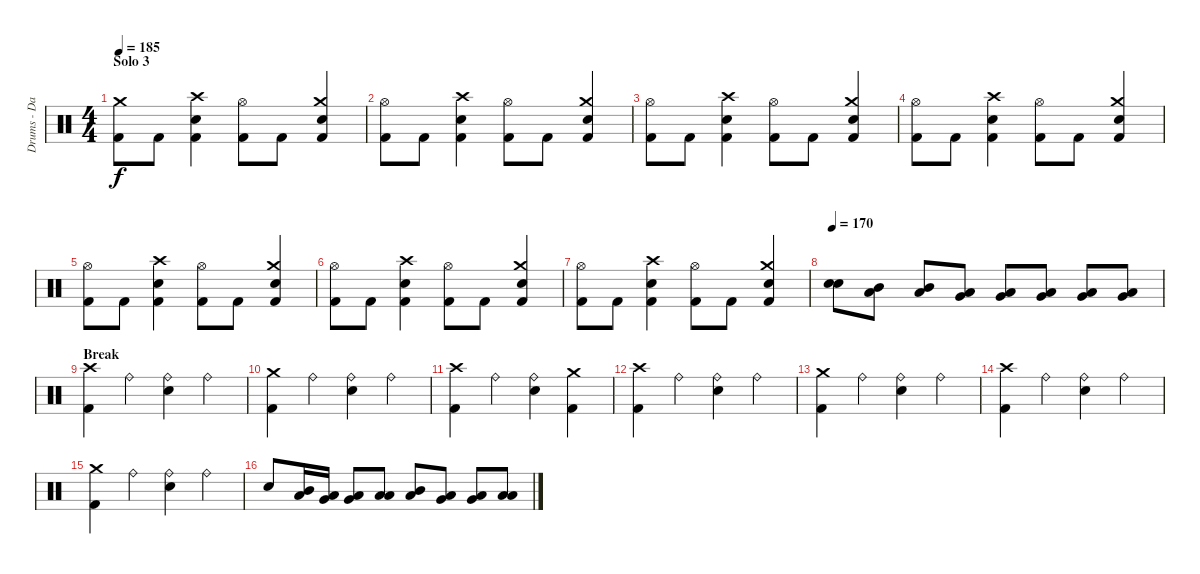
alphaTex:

\track ("Drums - Daniel Zimmermann" "Drums - Da") {instrument percussion}
\staff {score}
\articulation defaults
\ts (4 4)
\section ("" "Solo 3")
\tempo 185
\clef neutral
\ks c
("Kick (hit) 2" "Crash medium (hit)").8{dy f} "Kick (hit) 2".8 ("Kick (hit) 2" "Electric Snare (hit)" "Crash high (hit)").4 ("Kick (hit) 2" "Hi-Hat (open)").8 "Kick (hit) 2".8 ("Kick (hit) 2" "Electric Snare (hit)" "Crash medium (hit)").4 |
("Kick (hit) 2" "Hi-Hat (open)").8 "Kick (hit) 2".8 ("Kick (hit) 2" "Electric Snare (hit)" "Crash high (hit)").4 ("Kick (hit) 2" "Hi-Hat (open)").8 "Kick (hit) 2".8 ("Kick (hit) 2" "Electric Snare (hit)" "Crash medium (hit)").4 |
("Kick (hit) 2" "Hi-Hat (open)").8 "Kick (hit) 2".8 ("Kick (hit) 2" "Electric Snare (hit)" "Crash high (hit)").4 ("Kick (hit) 2" "Hi-Hat (open)").8 "Kick (hit) 2".8 ("Kick (hit) 2" "Electric Snare (hit)" "Crash medium (hit)").4 |
("Kick (hit) 2" "Hi-Hat (open)").8 "Kick (hit) 2".8 ("Kick (hit) 2" "Electric Snare (hit)" "Crash high (hit)").4 ("Kick (hit) 2" "Hi-Hat (open)").8 "Kick (hit) 2".8 ("Kick (hit) 2" "Electric Snare (hit)" "Crash medium (hit)").4 |
("Kick (hit) 2" "Hi-Hat (open)").8 "Kick (hit) 2".8 ("Kick (hit) 2" "Electric Snare (hit)" "Crash high (hit)").4 ("Kick (hit) 2" "Hi-Hat (open)").8 "Kick (hit) 2".8 ("Kick (hit) 2" "Electric Snare (hit)" "Crash medium (hit)").4 |
("Kick (hit) 2" "Hi-Hat (open)").8 "Kick (hit) 2".8 ("Kick (hit) 2" "Electric Snare (hit)" "Crash high (hit)").4 ("Kick (hit) 2" "Hi-Hat (open)").8 "Kick (hit) 2".8 ("Kick (hit) 2" "Electric Snare (hit)" "Crash medium (hit)").4 |
("Kick (hit) 2" "Hi-Hat (open)").8 "Kick (hit) 2".8 ("Kick (hit) 2" "Electric Snare (hit)" "Crash high (hit)").4 ("Kick (hit) 2" "Hi-Hat (open)").8 "Kick (hit) 2".8 ("Kick (hit) 2" "Electric Snare (hit)" "Crash medium (hit)").4 |
\tempo 170
("Electric Snare (hit)" "Electric Snare (hit)").8 ("Mid Tom (hit)" "Low Tom (hit)").8 ("Mid Tom (hit)" "Low Tom (hit)").8 ("Low Tom (hit)" "Very Low Tom (hit)").8 ("Low Tom (hit)" "Very Low Tom (hit)").8 ("Low Tom (hit)" "Very Low Tom (hit)").8 ("Very Low Tom (hit)" "Low Floor Tom (hit)").8 ("Very Low Tom (hit)" "Low Floor Tom (hit)").8 |
\section ("" "Break")
("Kick (hit) 2" "Crash high (hit)").4 "Ride (bell)".4 ("Electric Snare (hit)" "Ride (bell)").4 "Ride (bell)".4 |
("Kick (hit) 2" "Crash medium (hit)").4 "Ride (bell)".4 ("Electric Snare (hit)" "Ride (bell)").4 "Ride (bell)".4 |
("Kick (hit) 2" "Crash high (hit)").4 "Ride (bell)".4 ("Electric Snare (hit)" "Ride (bell)").4 ("Kick (hit) 2" "Crash medium (hit)").4 |
("Kick (hit) 2" "Crash high (hit)").4 "Ride (bell)".4 ("Electric Snare (hit)" "Ride (bell)").4 "Ride (bell)".4 |
("Kick (hit) 2" "Crash medium (hit)").4 "Ride (bell)".4 ("Electric Snare (hit)" "Ride (bell)").4 "Ride (bell)".4 |
("Kick (hit) 2" "Crash high (hit)").4 "Ride (bell)".4 ("Electric Snare (hit)" "Ride (bell)").4 "Ride (bell)".4 |
("Kick (hit) 2" "Crash medium (hit)").4 "Ride (bell)".4 ("Electric Snare (hit)" "Ride (bell)").4 "Ride (bell)".4 |
"Electric Snare (hit)".8 ("Mid Tom (hit)" "Low Tom (hit)").16 ("Low Tom (hit)" "Very Low Tom (hit)").16 ("Very Low Tom (hit)" "Low Floor Tom (hit)").8 ("Low Floor Tom (hit)" "Low Floor Tom (hit)").8 ("Mid Tom (hit)" "Low Tom (hit)").8 ("Low Tom (hit)" "Very Low Tom (hit)").8 ("Very Low Tom (hit)" "Low Floor Tom (hit)").8 ("Low Floor Tom (hit)" "Low Floor Tom (hit)").8
